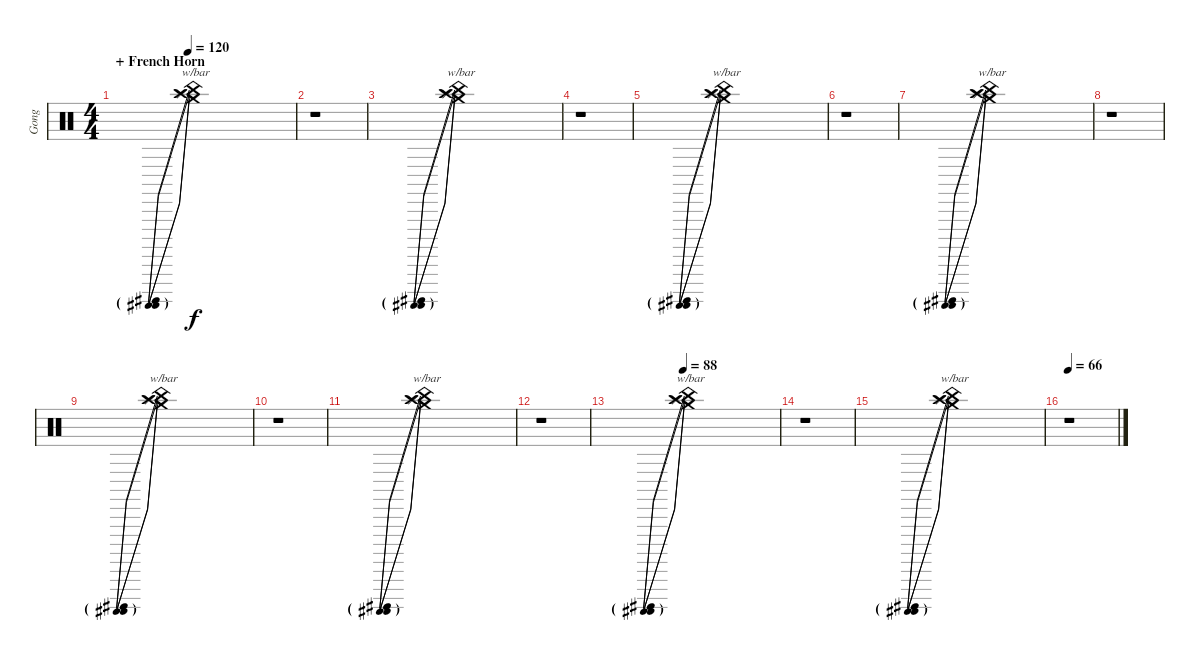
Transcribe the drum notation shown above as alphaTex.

\track ("Gong" "Gong") {instrument percussion}
\staff {score}
\articulation defaults
\ts (4 4)
\section ("" "+ French Horn")
\tempo 120
\clef neutral
\ks c
("Crash medium (hit)" "Splash (hit)" "China (hit)" "Crash high (hit)").1{tbe (predive default 0 -24 60 -24) dy f} |
r.1 |
("Crash medium (hit)" "Splash (hit)" "China (hit)" "Crash high (hit)").1{tbe (predive default 0 -24 60 -24)} |
r.1 |
("Crash medium (hit)" "Splash (hit)" "China (hit)" "Crash high (hit)").1{tbe (predive default 0 -24 60 -24)} |
r.1 |
("Crash medium (hit)" "Splash (hit)" "China (hit)" "Crash high (hit)").1{tbe (predive default 0 -24 60 -24)} |
r.1 |
("Crash medium (hit)" "Splash (hit)" "China (hit)" "Crash high (hit)").1{tbe (predive default 0 -24 60 -24)} |
r.1 |
("Crash medium (hit)" "Splash (hit)" "China (hit)" "Crash high (hit)").1{tbe (predive default 0 -24 60 -24)} |
r.1 |
\tempo 88
("Crash medium (hit)" "Splash (hit)" "China (hit)" "Crash high (hit)").1{tbe (predive default 0 -24 60 -24)} |
r.1 |
("Crash medium (hit)" "Splash (hit)" "China (hit)" "Crash high (hit)").1{tbe (predive default 0 -24 60 -24)} |
\tempo 66
r.1
